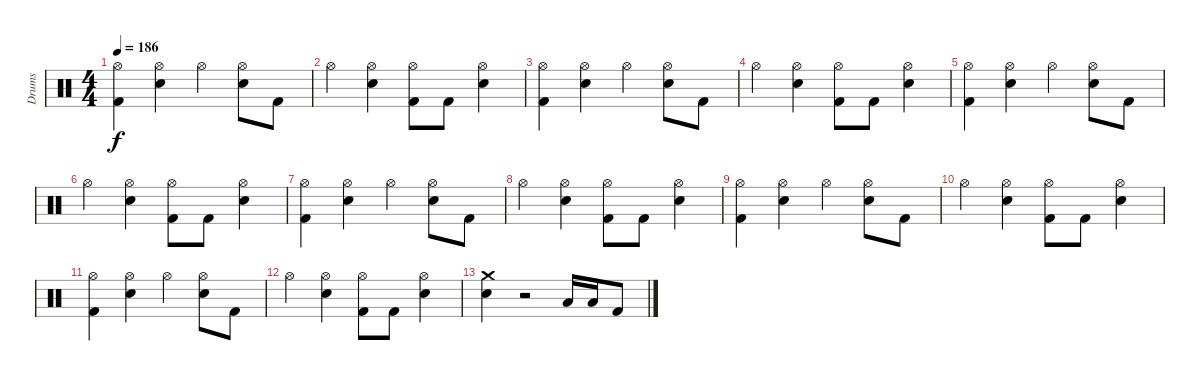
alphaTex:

\track ("Drums" "Drums") {instrument percussion}
\staff {score}
\articulation defaults
\ts (4 4)
\tempo 186
\clef neutral
\ks c
("Hi-Hat (open)" "Kick (hit) 2").4{dy f} ("Hi-Hat (open)" "Snare (hit) 2").4 "Hi-Hat (open)".4 ("Hi-Hat (open)" "Snare (hit) 2").8 "Kick (hit) 2".8 |
"Hi-Hat (open)".4 ("Hi-Hat (open)" "Snare (hit) 2").4 ("Hi-Hat (open)" "Kick (hit) 2").8 "Kick (hit) 2".8 ("Hi-Hat (open)" "Snare (hit) 2").4 |
("Hi-Hat (open)" "Kick (hit) 2").4 ("Hi-Hat (open)" "Snare (hit) 2").4 "Hi-Hat (open)".4 ("Hi-Hat (open)" "Snare (hit) 2").8 "Kick (hit) 2".8 |
"Hi-Hat (open)".4 ("Hi-Hat (open)" "Snare (hit) 2").4 ("Hi-Hat (open)" "Kick (hit) 2").8 "Kick (hit) 2".8 ("Hi-Hat (open)" "Snare (hit) 2").4 |
("Hi-Hat (open)" "Kick (hit) 2").4 ("Hi-Hat (open)" "Snare (hit) 2").4 "Hi-Hat (open)".4 ("Hi-Hat (open)" "Snare (hit) 2").8 "Kick (hit) 2".8 |
"Hi-Hat (open)".4 ("Hi-Hat (open)" "Snare (hit) 2").4 ("Hi-Hat (open)" "Kick (hit) 2").8 "Kick (hit) 2".8 ("Hi-Hat (open)" "Snare (hit) 2").4 |
("Hi-Hat (open)" "Kick (hit) 2").4 ("Hi-Hat (open)" "Snare (hit) 2").4 "Hi-Hat (open)".4 ("Hi-Hat (open)" "Snare (hit) 2").8 "Kick (hit) 2".8 |
"Hi-Hat (open)".4 ("Hi-Hat (open)" "Snare (hit) 2").4 ("Hi-Hat (open)" "Kick (hit) 2").8 "Kick (hit) 2".8 ("Hi-Hat (open)" "Snare (hit) 2").4 |
("Hi-Hat (open)" "Kick (hit) 2").4 ("Hi-Hat (open)" "Snare (hit) 2").4 "Hi-Hat (open)".4 ("Hi-Hat (open)" "Snare (hit) 2").8 "Kick (hit) 2".8 |
"Hi-Hat (open)".4 ("Hi-Hat (open)" "Snare (hit) 2").4 ("Hi-Hat (open)" "Kick (hit) 2").8 "Kick (hit) 2".8 ("Hi-Hat (open)" "Snare (hit) 2").4 |
("Hi-Hat (open)" "Kick (hit) 2").4 ("Hi-Hat (open)" "Snare (hit) 2").4 "Hi-Hat (open)".4 ("Hi-Hat (open)" "Snare (hit) 2").8 "Kick (hit) 2".8 |
"Hi-Hat (open)".4 ("Hi-Hat (open)" "Snare (hit) 2").4 ("Hi-Hat (open)" "Kick (hit) 2").8 "Kick (hit) 2".8 ("Hi-Hat (open)" "Snare (hit) 2").4 |
("Crash medium (hit)" "Snare (hit) 2").4 r.2 "Low Tom (hit)".16 "Low Tom (hit)".16 "Kick (hit) 2".8
